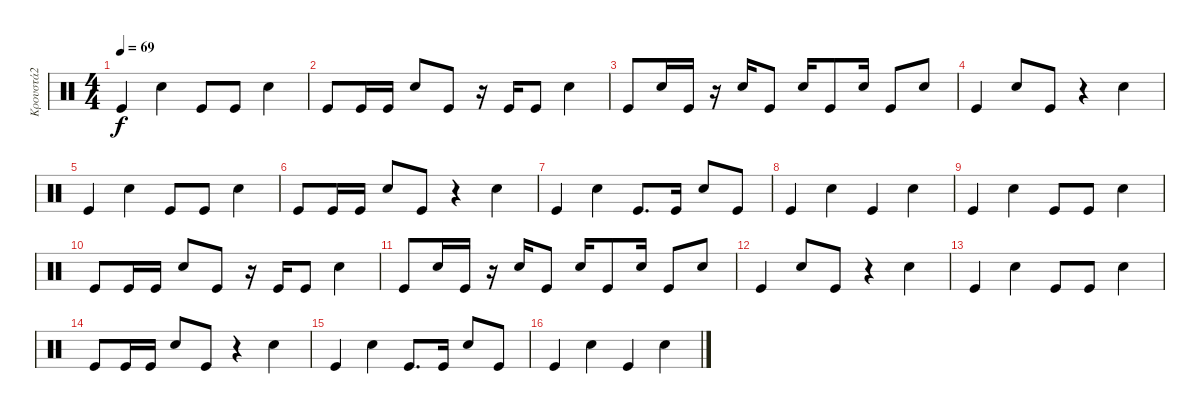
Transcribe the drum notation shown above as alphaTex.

\track ("Κρουστά2" "Κρουστά2") {instrument percussion}
\staff {score}
\articulation defaults
\ts (4 4)
\tempo 69
\clef neutral
\ks c "Kick (hit)".4{dy f} "Snare (hit) 2".4 "Kick (hit)".8 "Kick (hit)".8 "Snare (hit) 2".4
|
"Kick (hit)".8 "Kick (hit)".16 "Kick (hit)".16 "Snare (hit) 2".8 "Kick (hit)".8 r.16 "Kick (hit)".16 "Kick (hit)".8 "Snare (hit) 2".4 |
"Kick (hit)".8 "Snare (hit) 2".16 "Kick (hit)".16 r.16 "Snare (hit) 2".16 "Kick (hit)".8 "Snare (hit) 2".16 "Kick (hit)".8 "Snare (hit) 2".16 "Kick (hit)".8 "Snare (hit) 2".8 |
"Kick (hit)".4 "Snare (hit) 2".8 "Kick (hit)".8 r.4 "Snare (hit) 2".4 |
"Kick (hit)".4 "Snare (hit) 2".4 "Kick (hit)".8 "Kick (hit)".8 "Snare (hit) 2".4 |
"Kick (hit)".8 "Kick (hit)".16 "Kick (hit)".16 "Snare (hit) 2".8 "Kick (hit)".8 r.4 "Snare (hit) 2".4 |
"Kick (hit)".4 "Snare (hit) 2".4 "Kick (hit)".8{d} "Kick (hit)".16 "Snare (hit) 2".8 "Kick (hit)".8 |
"Kick (hit)".4 "Snare (hit) 2".4 "Kick (hit)".4 "Snare (hit) 2".4 |
"Kick (hit)".4 "Snare (hit) 2".4 "Kick (hit)".8 "Kick (hit)".8 "Snare (hit) 2".4 |
"Kick (hit)".8 "Kick (hit)".16 "Kick (hit)".16 "Snare (hit) 2".8 "Kick (hit)".8 r.16 "Kick (hit)".16 "Kick (hit)".8 "Snare (hit) 2".4 |
"Kick (hit)".8 "Snare (hit) 2".16 "Kick (hit)".16 r.16 "Snare (hit) 2".16 "Kick (hit)".8 "Snare (hit) 2".16 "Kick (hit)".8 "Snare (hit) 2".16 "Kick (hit)".8 "Snare (hit) 2".8 |
"Kick (hit)".4 "Snare (hit) 2".8 "Kick (hit)".8 r.4 "Snare (hit) 2".4 |
"Kick (hit)".4 "Snare (hit) 2".4 "Kick (hit)".8 "Kick (hit)".8 "Snare (hit) 2".4 |
"Kick (hit)".8 "Kick (hit)".16 "Kick (hit)".16 "Snare (hit) 2".8 "Kick (hit)".8 r.4 "Snare (hit) 2".4 |
"Kick (hit)".4 "Snare (hit) 2".4 "Kick (hit)".8{d} "Kick (hit)".16 "Snare (hit) 2".8 "Kick (hit)".8 |
"Kick (hit)".4 "Snare (hit) 2".4 "Kick (hit)".4 "Snare (hit) 2".4
